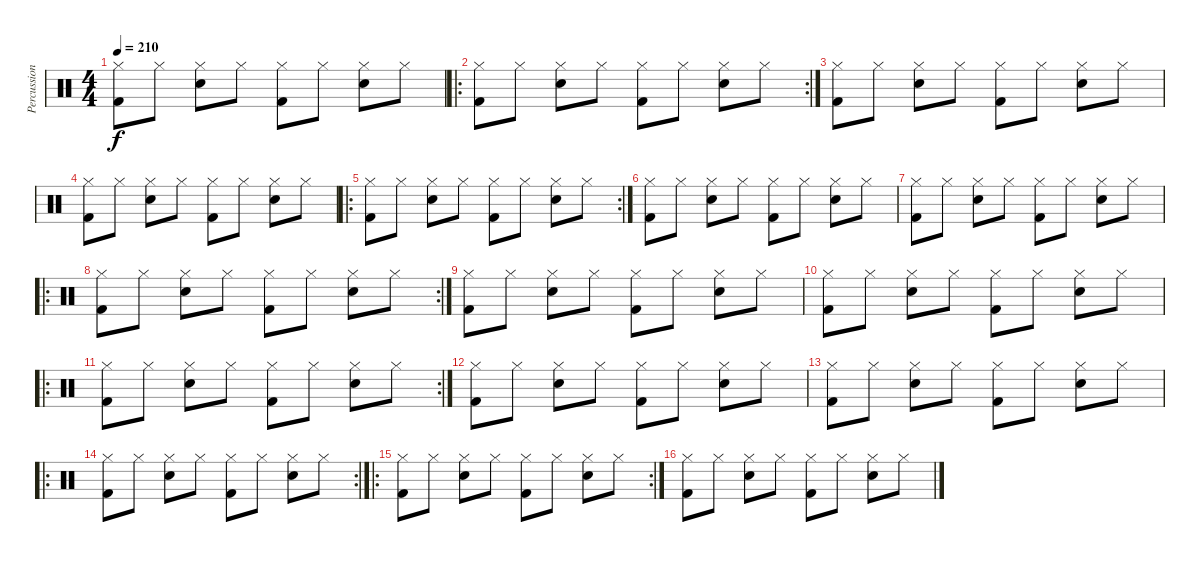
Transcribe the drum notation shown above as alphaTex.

\track ("Percussion" "Percussion") {instrument percussion}
\staff {score}
\articulation defaults
\ts (4 4)
\tempo 210
\clef neutral
\ks c
("Hi-Hat (closed)" "Kick (hit) 2").8{dy f} "Hi-Hat (closed)".8 ("Hi-Hat (closed)" "Snare (hit) 2").8 "Hi-Hat (closed)".8 ("Hi-Hat (closed)" "Kick (hit) 2").8 "Hi-Hat (closed)".8 ("Hi-Hat (closed)" "Snare (hit) 2").8 "Hi-Hat (closed)".8 |
\ro
\rc 2
("Hi-Hat (closed)" "Kick (hit) 2").8 "Hi-Hat (closed)".8 ("Hi-Hat (closed)" "Snare (hit) 2").8 "Hi-Hat (closed)".8 ("Hi-Hat (closed)" "Kick (hit) 2").8 "Hi-Hat (closed)".8 ("Hi-Hat (closed)" "Snare (hit) 2").8 "Hi-Hat (closed)".8 |
("Hi-Hat (closed)" "Kick (hit) 2").8 "Hi-Hat (closed)".8 ("Hi-Hat (closed)" "Snare (hit) 2").8 "Hi-Hat (closed)".8 ("Hi-Hat (closed)" "Kick (hit) 2").8 "Hi-Hat (closed)".8 ("Hi-Hat (closed)" "Snare (hit) 2").8 "Hi-Hat (closed)".8 |
("Hi-Hat (closed)" "Kick (hit) 2").8 "Hi-Hat (closed)".8 ("Hi-Hat (closed)" "Snare (hit) 2").8 "Hi-Hat (closed)".8 ("Hi-Hat (closed)" "Kick (hit) 2").8 "Hi-Hat (closed)".8 ("Hi-Hat (closed)" "Snare (hit) 2").8 "Hi-Hat (closed)".8 |
\ro
\rc 2
("Hi-Hat (closed)" "Kick (hit) 2").8 "Hi-Hat (closed)".8 ("Hi-Hat (closed)" "Snare (hit) 2").8 "Hi-Hat (closed)".8 ("Hi-Hat (closed)" "Kick (hit) 2").8 "Hi-Hat (closed)".8 ("Hi-Hat (closed)" "Snare (hit) 2").8 "Hi-Hat (closed)".8 |
("Hi-Hat (closed)" "Kick (hit) 2").8 "Hi-Hat (closed)".8 ("Hi-Hat (closed)" "Snare (hit) 2").8 "Hi-Hat (closed)".8 ("Hi-Hat (closed)" "Kick (hit) 2").8 "Hi-Hat (closed)".8 ("Hi-Hat (closed)" "Snare (hit) 2").8 "Hi-Hat (closed)".8 |
("Hi-Hat (closed)" "Kick (hit) 2").8 "Hi-Hat (closed)".8 ("Hi-Hat (closed)" "Snare (hit) 2").8 "Hi-Hat (closed)".8 ("Hi-Hat (closed)" "Kick (hit) 2").8 "Hi-Hat (closed)".8 ("Hi-Hat (closed)" "Snare (hit) 2").8 "Hi-Hat (closed)".8 |
\ro
\rc 2
("Hi-Hat (closed)" "Kick (hit) 2").8 "Hi-Hat (closed)".8 ("Hi-Hat (closed)" "Snare (hit) 2").8 "Hi-Hat (closed)".8 ("Hi-Hat (closed)" "Kick (hit) 2").8 "Hi-Hat (closed)".8 ("Hi-Hat (closed)" "Snare (hit) 2").8 "Hi-Hat (closed)".8 |
("Hi-Hat (closed)" "Kick (hit) 2").8 "Hi-Hat (closed)".8 ("Hi-Hat (closed)" "Snare (hit) 2").8 "Hi-Hat (closed)".8 ("Hi-Hat (closed)" "Kick (hit) 2").8 "Hi-Hat (closed)".8 ("Hi-Hat (closed)" "Snare (hit) 2").8 "Hi-Hat (closed)".8 |
("Hi-Hat (closed)" "Kick (hit) 2").8 "Hi-Hat (closed)".8 ("Hi-Hat (closed)" "Snare (hit) 2").8 "Hi-Hat (closed)".8 ("Hi-Hat (closed)" "Kick (hit) 2").8 "Hi-Hat (closed)".8 ("Hi-Hat (closed)" "Snare (hit) 2").8 "Hi-Hat (closed)".8 |
\ro
\rc 2
("Hi-Hat (closed)" "Kick (hit) 2").8 "Hi-Hat (closed)".8 ("Hi-Hat (closed)" "Snare (hit) 2").8 "Hi-Hat (closed)".8 ("Hi-Hat (closed)" "Kick (hit) 2").8 "Hi-Hat (closed)".8 ("Hi-Hat (closed)" "Snare (hit) 2").8 "Hi-Hat (closed)".8 |
("Hi-Hat (closed)" "Kick (hit) 2").8 "Hi-Hat (closed)".8 ("Hi-Hat (closed)" "Snare (hit) 2").8 "Hi-Hat (closed)".8 ("Hi-Hat (closed)" "Kick (hit) 2").8 "Hi-Hat (closed)".8 ("Hi-Hat (closed)" "Snare (hit) 2").8 "Hi-Hat (closed)".8 |
("Hi-Hat (closed)" "Kick (hit) 2").8 "Hi-Hat (closed)".8 ("Hi-Hat (closed)" "Snare (hit) 2").8 "Hi-Hat (closed)".8 ("Hi-Hat (closed)" "Kick (hit) 2").8 "Hi-Hat (closed)".8 ("Hi-Hat (closed)" "Snare (hit) 2").8 "Hi-Hat (closed)".8 |
\ro
\rc 2
("Hi-Hat (closed)" "Kick (hit) 2").8 "Hi-Hat (closed)".8 ("Hi-Hat (closed)" "Snare (hit) 2").8 "Hi-Hat (closed)".8 ("Hi-Hat (closed)" "Kick (hit) 2").8 "Hi-Hat (closed)".8 ("Hi-Hat (closed)" "Snare (hit) 2").8 "Hi-Hat (closed)".8 |
\ro
\rc 2
("Hi-Hat (closed)" "Kick (hit) 2").8 "Hi-Hat (closed)".8 ("Hi-Hat (closed)" "Snare (hit) 2").8 "Hi-Hat (closed)".8 ("Hi-Hat (closed)" "Kick (hit) 2").8 "Hi-Hat (closed)".8 ("Hi-Hat (closed)" "Snare (hit) 2").8 "Hi-Hat (closed)".8 |
("Hi-Hat (closed)" "Kick (hit) 2").8 "Hi-Hat (closed)".8 ("Hi-Hat (closed)" "Snare (hit) 2").8 "Hi-Hat (closed)".8 ("Hi-Hat (closed)" "Kick (hit) 2").8 "Hi-Hat (closed)".8 ("Hi-Hat (closed)" "Snare (hit) 2").8 "Hi-Hat (closed)".8
